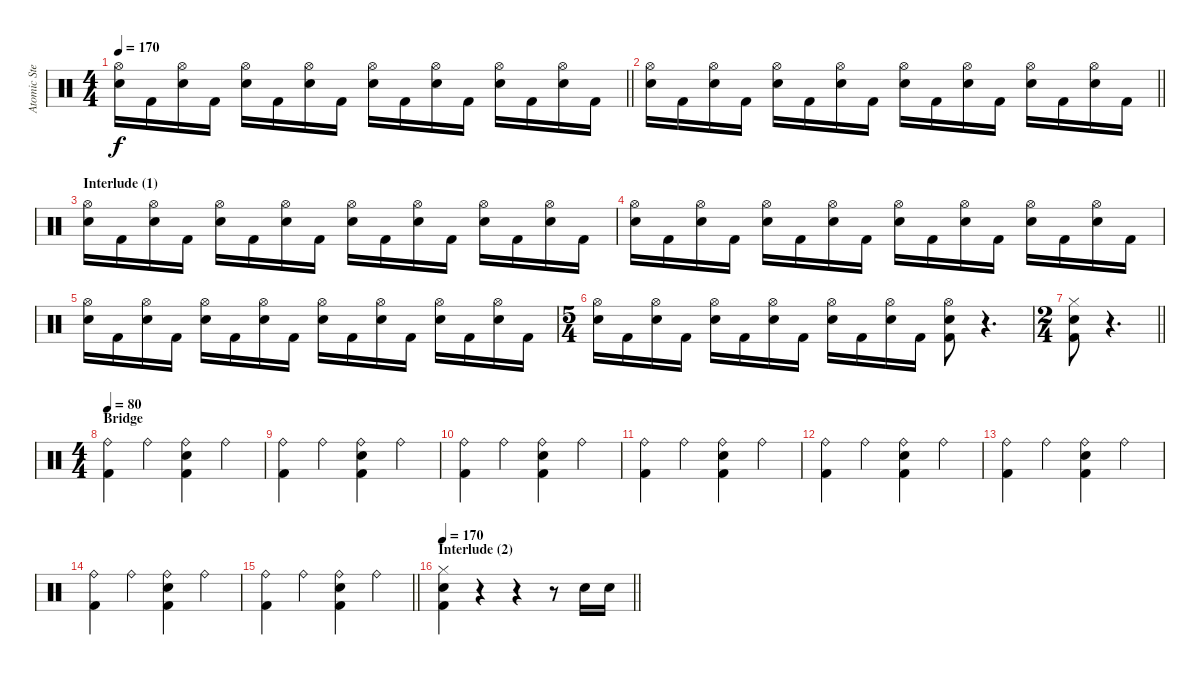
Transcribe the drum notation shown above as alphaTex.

\track ("Atomic Steif" "Atomic Ste") {instrument percussion}
\staff {score}
\articulation defaults
\ts (4 4)
\tempo 170
\clef neutral
\barLineRight lightlight
\ks c
("Hi-Hat (open)" "Electric Snare (hit)").16{dy f} "Kick (hit) 2".16 ("Hi-Hat (open)" "Electric Snare (hit)").16 "Kick (hit) 2".16 ("Hi-Hat (open)" "Electric Snare (hit)").16 "Kick (hit) 2".16 ("Hi-Hat (open)" "Electric Snare (hit)").16 "Kick (hit) 2".16 ("Hi-Hat (open)" "Electric Snare (hit)").16 "Kick (hit) 2".16 ("Hi-Hat (open)" "Electric Snare (hit)").16 "Kick (hit) 2".16 ("Hi-Hat (open)" "Electric Snare (hit)").16 "Kick (hit) 2".16 ("Hi-Hat (open)" "Electric Snare (hit)").16 "Kick (hit) 2".16 |
\barLineRight lightlight
("Hi-Hat (open)" "Electric Snare (hit)").16 "Kick (hit) 2".16 ("Hi-Hat (open)" "Electric Snare (hit)").16 "Kick (hit) 2".16 ("Hi-Hat (open)" "Electric Snare (hit)").16 "Kick (hit) 2".16 ("Hi-Hat (open)" "Electric Snare (hit)").16 "Kick (hit) 2".16 ("Hi-Hat (open)" "Electric Snare (hit)").16 "Kick (hit) 2".16 ("Hi-Hat (open)" "Electric Snare (hit)").16 "Kick (hit) 2".16 ("Hi-Hat (open)" "Electric Snare (hit)").16 "Kick (hit) 2".16 ("Hi-Hat (open)" "Electric Snare (hit)").16 "Kick (hit) 2".16 |
\section ("" "Interlude (1)")
("Hi-Hat (open)" "Electric Snare (hit)").16 "Kick (hit) 2".16 ("Hi-Hat (open)" "Electric Snare (hit)").16 "Kick (hit) 2".16 ("Hi-Hat (open)" "Electric Snare (hit)").16 "Kick (hit) 2".16 ("Hi-Hat (open)" "Electric Snare (hit)").16 "Kick (hit) 2".16 ("Hi-Hat (open)" "Electric Snare (hit)").16 "Kick (hit) 2".16 ("Hi-Hat (open)" "Electric Snare (hit)").16 "Kick (hit) 2".16 ("Hi-Hat (open)" "Electric Snare (hit)").16 "Kick (hit) 2".16 ("Hi-Hat (open)" "Electric Snare (hit)").16 "Kick (hit) 2".16 |
("Hi-Hat (open)" "Electric Snare (hit)").16 "Kick (hit) 2".16 ("Hi-Hat (open)" "Electric Snare (hit)").16 "Kick (hit) 2".16 ("Hi-Hat (open)" "Electric Snare (hit)").16 "Kick (hit) 2".16 ("Hi-Hat (open)" "Electric Snare (hit)").16 "Kick (hit) 2".16 ("Hi-Hat (open)" "Electric Snare (hit)").16 "Kick (hit) 2".16 ("Hi-Hat (open)" "Electric Snare (hit)").16 "Kick (hit) 2".16 ("Hi-Hat (open)" "Electric Snare (hit)").16 "Kick (hit) 2".16 ("Hi-Hat (open)" "Electric Snare (hit)").16 "Kick (hit) 2".16 |
("Hi-Hat (open)" "Electric Snare (hit)").16 "Kick (hit) 2".16 ("Hi-Hat (open)" "Electric Snare (hit)").16 "Kick (hit) 2".16 ("Hi-Hat (open)" "Electric Snare (hit)").16 "Kick (hit) 2".16 ("Hi-Hat (open)" "Electric Snare (hit)").16 "Kick (hit) 2".16 ("Hi-Hat (open)" "Electric Snare (hit)").16 "Kick (hit) 2".16 ("Hi-Hat (open)" "Electric Snare (hit)").16 "Kick (hit) 2".16 ("Hi-Hat (open)" "Electric Snare (hit)").16 "Kick (hit) 2".16 ("Hi-Hat (open)" "Electric Snare (hit)").16 "Kick (hit) 2".16 |
\ts (5 4)
("Hi-Hat (open)" "Electric Snare (hit)").16 "Kick (hit) 2".16 ("Hi-Hat (open)" "Electric Snare (hit)").16 "Kick (hit) 2".16 ("Hi-Hat (open)" "Electric Snare (hit)").16 "Kick (hit) 2".16 ("Hi-Hat (open)" "Electric Snare (hit)").16 "Kick (hit) 2".16 ("Hi-Hat (open)" "Electric Snare (hit)").16 "Kick (hit) 2".16 ("Hi-Hat (open)" "Electric Snare (hit)").16 "Kick (hit) 2".16 ("Hi-Hat (open)" "Electric Snare (hit)" "Kick (hit) 2").8 r.4{d} |
\ts (2 4)
\barLineRight lightlight
("Hi-Hat (closed)" "Electric Snare (hit)" "Kick (hit) 2").8 r.4{d} |
\ts (4 4)
\section ("" "Bridge")
\tempo 80
("Ride (bell)" "Kick (hit) 2").4 "Ride (bell)".4 ("Ride (bell)" "Electric Snare (hit)" "Kick (hit) 2").4 "Ride (bell)".4 |
("Ride (bell)" "Kick (hit) 2").4 "Ride (bell)".4 ("Ride (bell)" "Electric Snare (hit)" "Kick (hit) 2").4 "Ride (bell)".4 |
("Ride (bell)" "Kick (hit) 2").4 "Ride (bell)".4 ("Ride (bell)" "Electric Snare (hit)" "Kick (hit) 2").4 "Ride (bell)".4 |
("Ride (bell)" "Kick (hit) 2").4 "Ride (bell)".4 ("Ride (bell)" "Electric Snare (hit)" "Kick (hit) 2").4 "Ride (bell)".4 |
("Ride (bell)" "Kick (hit) 2").4 "Ride (bell)".4 ("Ride (bell)" "Electric Snare (hit)" "Kick (hit) 2").4 "Ride (bell)".4 |
("Ride (bell)" "Kick (hit) 2").4 "Ride (bell)".4 ("Ride (bell)" "Electric Snare (hit)" "Kick (hit) 2").4 "Ride (bell)".4 |
("Ride (bell)" "Kick (hit) 2").4 "Ride (bell)".4 ("Ride (bell)" "Electric Snare (hit)" "Kick (hit) 2").4 "Ride (bell)".4 |
\barLineRight lightlight
("Ride (bell)" "Kick (hit) 2").4 "Ride (bell)".4 ("Ride (bell)" "Electric Snare (hit)" "Kick (hit) 2").4 "Ride (bell)".4 |
\section ("" "Interlude (2)")
\tempo 170
\barLineRight lightlight
("Hi-Hat (closed)" "Electric Snare (hit)" "Kick (hit) 2").4 r.4 r.4 r.8 "Electric Snare (hit)".16 "Electric Snare (hit)".16
